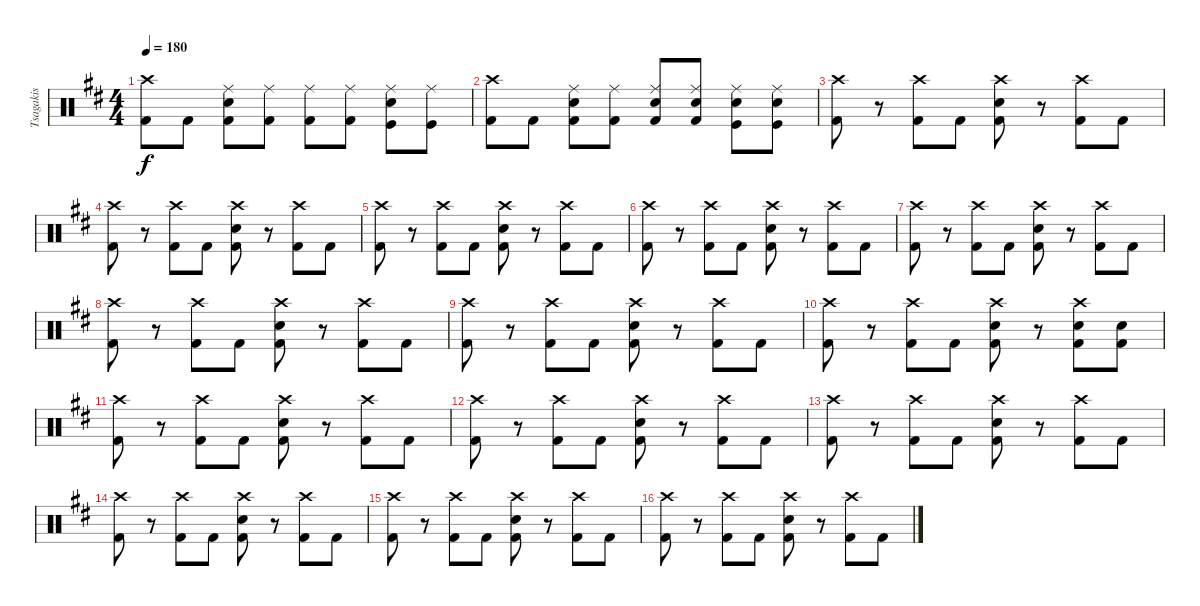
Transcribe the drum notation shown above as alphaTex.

\track ("Tsagakis" "Tsagakis") {instrument percussion}
\staff {score}
\articulation defaults
\ts (4 4)
\tempo 180
\clef neutral
\ks d
("Crash high (hit)" "Kick (hit) 2").8{dy f} "Kick (hit) 2".8 ("Ride (middle)" "Electric Snare (hit)" "Kick (hit) 2").8 ("Ride (middle)" "Kick (hit) 2").8 ("Ride (middle)" "Kick (hit) 2").8 ("Ride (middle)" "Kick (hit) 2").8 ("Ride (middle)" "Electric Snare (hit)" "Kick (hit)").8 ("Ride (middle)" "Kick (hit)").8 |
("Crash high (hit)" "Kick (hit) 2").8 "Kick (hit) 2".8 ("Ride (middle)" "Electric Snare (hit)" "Kick (hit) 2").8 ("Ride (middle)" "Kick (hit) 2").8 ("Ride (middle)" "Electric Snare (hit)" "Kick (hit) 2").8 ("Ride (middle)" "Electric Snare (hit)" "Kick (hit) 2").8 ("Ride (middle)" "Electric Snare (hit)" "Kick (hit)").8 ("Ride (middle)" "Electric Snare (hit)" "Kick (hit)").8 |
("Crash high (hit)" "Kick (hit) 2").8 r.8 ("Crash high (hit)" "Kick (hit) 2").8 "Kick (hit) 2".8 ("Crash high (hit)" "Electric Snare (hit)" "Kick (hit) 2").8 r.8 ("Crash high (hit)" "Kick (hit) 2").8 "Kick (hit) 2".8 |
("Crash high (hit)" "Kick (hit) 2").8 r.8 ("Crash high (hit)" "Kick (hit) 2").8 "Kick (hit) 2".8 ("Crash high (hit)" "Electric Snare (hit)" "Kick (hit) 2").8 r.8 ("Crash high (hit)" "Kick (hit) 2").8 "Kick (hit) 2".8 |
("Crash high (hit)" "Kick (hit) 2").8 r.8 ("Crash high (hit)" "Kick (hit) 2").8 "Kick (hit) 2".8 ("Crash high (hit)" "Electric Snare (hit)" "Kick (hit) 2").8 r.8 ("Crash high (hit)" "Kick (hit) 2").8 "Kick (hit) 2".8 |
("Crash high (hit)" "Kick (hit) 2").8 r.8 ("Crash high (hit)" "Kick (hit) 2").8 "Kick (hit) 2".8 ("Crash high (hit)" "Electric Snare (hit)" "Kick (hit) 2").8 r.8 ("Crash high (hit)" "Kick (hit) 2").8 "Kick (hit) 2".8 |
("Crash high (hit)" "Kick (hit) 2").8 r.8 ("Crash high (hit)" "Kick (hit) 2").8 "Kick (hit) 2".8 ("Crash high (hit)" "Electric Snare (hit)" "Kick (hit) 2").8 r.8 ("Crash high (hit)" "Kick (hit) 2").8 "Kick (hit) 2".8 |
("Crash high (hit)" "Kick (hit) 2").8 r.8 ("Crash high (hit)" "Kick (hit) 2").8 "Kick (hit) 2".8 ("Crash high (hit)" "Electric Snare (hit)" "Kick (hit) 2").8 r.8 ("Crash high (hit)" "Kick (hit) 2").8 "Kick (hit) 2".8 |
("Crash high (hit)" "Kick (hit) 2").8 r.8 ("Crash high (hit)" "Kick (hit) 2").8 "Kick (hit) 2".8 ("Crash high (hit)" "Electric Snare (hit)" "Kick (hit) 2").8 r.8 ("Crash high (hit)" "Kick (hit) 2").8 "Kick (hit) 2".8 |
("Crash high (hit)" "Kick (hit) 2").8 r.8 ("Crash high (hit)" "Kick (hit) 2").8 "Kick (hit) 2".8 ("Crash high (hit)" "Electric Snare (hit)" "Kick (hit) 2").8 r.8 ("Crash high (hit)" "Electric Snare (hit)" "Kick (hit) 2").8 ("Electric Snare (hit)" "Kick (hit) 2").8 |
("Crash high (hit)" "Kick (hit) 2").8 r.8 ("Crash high (hit)" "Kick (hit) 2").8 "Kick (hit) 2".8 ("Crash high (hit)" "Electric Snare (hit)" "Kick (hit) 2").8 r.8 ("Crash high (hit)" "Kick (hit) 2").8 "Kick (hit) 2".8 |
("Crash high (hit)" "Kick (hit) 2").8 r.8 ("Crash high (hit)" "Kick (hit) 2").8 "Kick (hit) 2".8 ("Crash high (hit)" "Electric Snare (hit)" "Kick (hit) 2").8 r.8 ("Crash high (hit)" "Kick (hit) 2").8 "Kick (hit) 2".8 |
("Crash high (hit)" "Kick (hit) 2").8 r.8 ("Crash high (hit)" "Kick (hit) 2").8 "Kick (hit) 2".8 ("Crash high (hit)" "Electric Snare (hit)" "Kick (hit) 2").8 r.8 ("Crash high (hit)" "Kick (hit) 2").8 "Kick (hit) 2".8 |
("Crash high (hit)" "Kick (hit) 2").8 r.8 ("Crash high (hit)" "Kick (hit) 2").8 "Kick (hit) 2".8 ("Crash high (hit)" "Electric Snare (hit)" "Kick (hit) 2").8 r.8 ("Crash high (hit)" "Kick (hit) 2").8 "Kick (hit) 2".8 |
("Crash high (hit)" "Kick (hit) 2").8 r.8 ("Crash high (hit)" "Kick (hit) 2").8 "Kick (hit) 2".8 ("Crash high (hit)" "Electric Snare (hit)" "Kick (hit) 2").8 r.8 ("Crash high (hit)" "Kick (hit) 2").8 "Kick (hit) 2".8 |
("Crash high (hit)" "Kick (hit) 2").8 r.8 ("Crash high (hit)" "Kick (hit) 2").8 "Kick (hit) 2".8 ("Crash high (hit)" "Electric Snare (hit)" "Kick (hit) 2").8 r.8 ("Crash high (hit)" "Kick (hit) 2").8 "Kick (hit) 2".8
